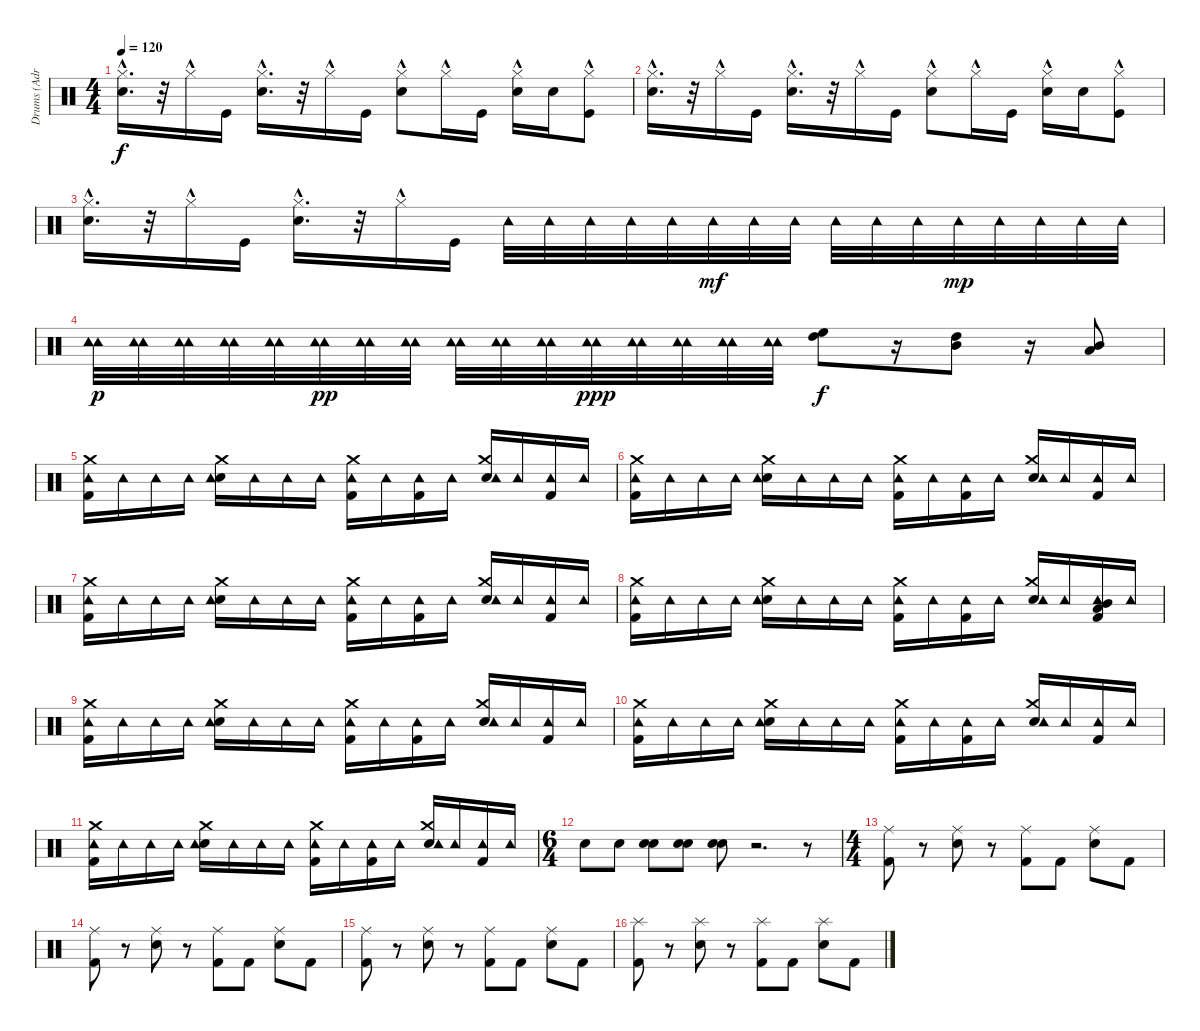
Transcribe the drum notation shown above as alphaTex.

\track ("Drums (Adrian Young)" "Drums (Adr") {instrument percussion}
\staff {score}
\articulation defaults
\ts (4 4)
\tempo 120
\clef neutral
\ks c
("Hi-Hat (closed)"{hac} "Electric Snare (hit)"{hac}).16{d dy f} r.32 "Hi-Hat (closed)"{hac}.16 "Kick (hit)".16 ("Hi-Hat (closed)"{hac} "Electric Snare (hit)"{hac}).16{d} r.32 "Hi-Hat (closed)"{hac}.16 "Kick (hit)".16 ("Hi-Hat (closed)"{hac} "Electric Snare (hit)").8 "Hi-Hat (closed)"{hac}.16 "Kick (hit)".16 ("Hi-Hat (closed)"{hac} "Electric Snare (hit)").16 "Electric Snare (hit)".16 ("Hi-Hat (closed)"{hac} "Kick (hit)").8 |
("Hi-Hat (closed)"{hac} "Electric Snare (hit)"{hac}).16{d} r.32 "Hi-Hat (closed)"{hac}.16 "Kick (hit)".16 ("Hi-Hat (closed)"{hac} "Electric Snare (hit)"{hac}).16{d} r.32 "Hi-Hat (closed)"{hac}.16 "Kick (hit)".16 ("Hi-Hat (closed)"{hac} "Electric Snare (hit)").8 "Hi-Hat (closed)"{hac}.16 "Kick (hit)".16 ("Hi-Hat (closed)"{hac} "Electric Snare (hit)").16 "Electric Snare (hit)".16 ("Hi-Hat (closed)"{hac} "Kick (hit)").8 |
("Hi-Hat (closed)"{hac} "Electric Snare (hit)"{hac}).16{d} r.32 "Hi-Hat (closed)"{hac}.16 "Kick (hit)".16 ("Hi-Hat (closed)"{hac} "Electric Snare (hit)"{hac}).16{d} r.32 "Hi-Hat (closed)"{hac}.16 "Kick (hit)".16 "Tambourine (hit)".32 "Tambourine (hit)".32 "Tambourine (hit)".32 "Tambourine (hit)".32 "Tambourine (hit)".32 "Tambourine (hit)".32{dy mf} "Tambourine (hit)".32 "Tambourine (hit)".32 "Tambourine (hit)".32 "Tambourine (hit)".32 "Tambourine (hit)".32 "Tambourine (hit)".32{dy mp} "Tambourine (hit)".32 "Tambourine (hit)".32 "Tambourine (hit)".32 "Tambourine (hit)".32 |
("Tambourine (hit)" "Tambourine (hit)" "Tambourine (hit)").32{dy p} ("Tambourine (hit)" "Tambourine (hit)").32 ("Tambourine (hit)" "Tambourine (hit)").32 ("Tambourine (hit)" "Tambourine (hit)").32 ("Tambourine (hit)" "Tambourine (hit)").32 ("Tambourine (hit)" "Tambourine (hit)").32{dy pp} ("Tambourine (hit)" "Tambourine (hit)").32 ("Tambourine (hit)" "Tambourine (hit)").32 ("Tambourine (hit)" "Tambourine (hit)").32 ("Tambourine (hit)" "Tambourine (hit)").32 ("Tambourine (hit)" "Tambourine (hit)").32 ("Tambourine (hit)" "Tambourine (hit)").32{dy ppp} ("Tambourine (hit)" "Tambourine (hit)").32 ("Tambourine (hit)" "Tambourine (hit)").32 ("Tambourine (hit)" "Tambourine (hit)").32 ("Tambourine (hit)" "Tambourine (hit)").32 ("High Floor Tom (hit)" "High Tom (hit)").8{dy f} r.16 ("High Tom (hit)" "Mid Tom (hit)").8 r.16 ("Mid Tom (hit)" "Low Tom (hit)").8 |
("Kick (hit) 2" "Tambourine (hit)" "Crash medium (hit)").16 "Tambourine (hit)".16 "Tambourine (hit)".16 "Tambourine (hit)".16 ("Snare (hit) 2" "Tambourine (hit)" "Crash medium (hit)").16 "Tambourine (hit)".16 "Tambourine (hit)".16 "Tambourine (hit)".16 ("Kick (hit) 2" "Tambourine (hit)" "Crash medium (hit)").16 "Tambourine (hit)".16 ("Kick (hit) 2" "Tambourine (hit)").16 "Tambourine (hit)".16 ("Snare (hit) 2" "Tambourine (hit)" "Crash medium (hit)").16 "Tambourine (hit)".16 ("Kick (hit) 2" "Tambourine (hit)").16 "Tambourine (hit)".16 |
("Kick (hit) 2" "Tambourine (hit)" "Crash medium (hit)").16 "Tambourine (hit)".16 "Tambourine (hit)".16 "Tambourine (hit)".16 ("Snare (hit) 2" "Tambourine (hit)" "Crash medium (hit)").16 "Tambourine (hit)".16 "Tambourine (hit)".16 "Tambourine (hit)".16 ("Kick (hit) 2" "Tambourine (hit)" "Crash medium (hit)").16 "Tambourine (hit)".16 ("Kick (hit) 2" "Tambourine (hit)").16 "Tambourine (hit)".16 ("Snare (hit) 2" "Tambourine (hit)" "Crash medium (hit)").16 "Tambourine (hit)".16 ("Kick (hit) 2" "Tambourine (hit)").16 "Tambourine (hit)".16 |
("Kick (hit) 2" "Tambourine (hit)" "Crash medium (hit)").16 "Tambourine (hit)".16 "Tambourine (hit)".16 "Tambourine (hit)".16 ("Snare (hit) 2" "Tambourine (hit)" "Crash medium (hit)").16 "Tambourine (hit)".16 "Tambourine (hit)".16 "Tambourine (hit)".16 ("Kick (hit) 2" "Tambourine (hit)" "Crash medium (hit)").16 "Tambourine (hit)".16 ("Kick (hit) 2" "Tambourine (hit)").16 "Tambourine (hit)".16 ("Snare (hit) 2" "Tambourine (hit)" "Crash medium (hit)").16 "Tambourine (hit)".16 ("Kick (hit) 2" "Tambourine (hit)").16 "Tambourine (hit)".16 |
("Kick (hit) 2" "Tambourine (hit)" "Crash medium (hit)").16 "Tambourine (hit)".16 "Tambourine (hit)".16 "Tambourine (hit)".16 ("Snare (hit) 2" "Tambourine (hit)" "Crash medium (hit)").16 "Tambourine (hit)".16 "Tambourine (hit)".16 "Tambourine (hit)".16 ("Kick (hit) 2" "Tambourine (hit)" "Crash medium (hit)").16 "Tambourine (hit)".16 ("Kick (hit) 2" "Tambourine (hit)").16 "Tambourine (hit)".16 ("Snare (hit) 2" "Tambourine (hit)" "Crash medium (hit)").16 "Tambourine (hit)".16 ("Kick (hit) 2" "Tambourine (hit)" "Low Tom (hit)" "Mid Tom (hit)").16 "Tambourine (hit)".16 |
("Kick (hit) 2" "Tambourine (hit)" "Crash medium (hit)").16 "Tambourine (hit)".16 "Tambourine (hit)".16 "Tambourine (hit)".16 ("Snare (hit) 2" "Tambourine (hit)" "Crash medium (hit)").16 "Tambourine (hit)".16 "Tambourine (hit)".16 "Tambourine (hit)".16 ("Kick (hit) 2" "Tambourine (hit)" "Crash medium (hit)").16 "Tambourine (hit)".16 ("Kick (hit) 2" "Tambourine (hit)").16 "Tambourine (hit)".16 ("Snare (hit) 2" "Tambourine (hit)" "Crash medium (hit)").16 "Tambourine (hit)".16 ("Kick (hit) 2" "Tambourine (hit)").16 "Tambourine (hit)".16 |
("Kick (hit) 2" "Tambourine (hit)" "Crash medium (hit)").16 "Tambourine (hit)".16 "Tambourine (hit)".16 "Tambourine (hit)".16 ("Snare (hit) 2" "Tambourine (hit)" "Crash medium (hit)").16 "Tambourine (hit)".16 "Tambourine (hit)".16 "Tambourine (hit)".16 ("Kick (hit) 2" "Tambourine (hit)" "Crash medium (hit)").16 "Tambourine (hit)".16 ("Kick (hit) 2" "Tambourine (hit)").16 "Tambourine (hit)".16 ("Snare (hit) 2" "Tambourine (hit)" "Crash medium (hit)").16 "Tambourine (hit)".16 ("Kick (hit) 2" "Tambourine (hit)").16 "Tambourine (hit)".16 |
("Kick (hit) 2" "Tambourine (hit)" "Crash medium (hit)").16 "Tambourine (hit)".16 "Tambourine (hit)".16 "Tambourine (hit)".16 ("Snare (hit) 2" "Tambourine (hit)" "Crash medium (hit)").16 "Tambourine (hit)".16 "Tambourine (hit)".16 "Tambourine (hit)".16 ("Kick (hit) 2" "Tambourine (hit)" "Crash medium (hit)").16 "Tambourine (hit)".16 ("Kick (hit) 2" "Tambourine (hit)").16 "Tambourine (hit)".16 ("Snare (hit) 2" "Tambourine (hit)" "Crash medium (hit)").16 "Tambourine (hit)".16 ("Kick (hit) 2" "Tambourine (hit)").16 "Tambourine (hit)".16 |
\ts (6 4)
"Snare (hit) 2".8 "Snare (hit) 2".8 ("Snare (hit) 2" "Electric Snare (hit)").8 ("Snare (hit) 2" "Electric Snare (hit)").8 ("Snare (hit) 2" "Electric Snare (hit)").8 r.2{d} r.8 |
\ts (4 4)
("Kick (hit) 2" "Ride (middle)").8 r.8 ("Snare (hit) 2" "Ride (middle)").8 r.8 ("Kick (hit) 2" "Ride (middle)").8 "Kick (hit) 2".8 ("Snare (hit) 2" "Ride (middle)").8 "Kick (hit) 2".8 |
("Kick (hit) 2" "Ride (middle)").8 r.8 ("Snare (hit) 2" "Ride (middle)").8 r.8 ("Kick (hit) 2" "Ride (middle)").8 "Kick (hit) 2".8 ("Snare (hit) 2" "Ride (middle)").8 "Kick (hit) 2".8 |
("Kick (hit) 2" "Ride (middle)").8 r.8 ("Snare (hit) 2" "Ride (middle)").8 r.8 ("Kick (hit) 2" "Ride (middle)").8 "Kick (hit) 2".8 ("Snare (hit) 2" "Ride (middle)").8 "Kick (hit) 2".8 |
("Kick (hit) 2" "Splash (hit)").8 r.8 ("Snare (hit) 2" "Splash (hit)").8 r.8 ("Kick (hit) 2" "Splash (hit)").8 "Kick (hit) 2".8 ("Snare (hit) 2" "Splash (hit)").8 "Kick (hit) 2".8
